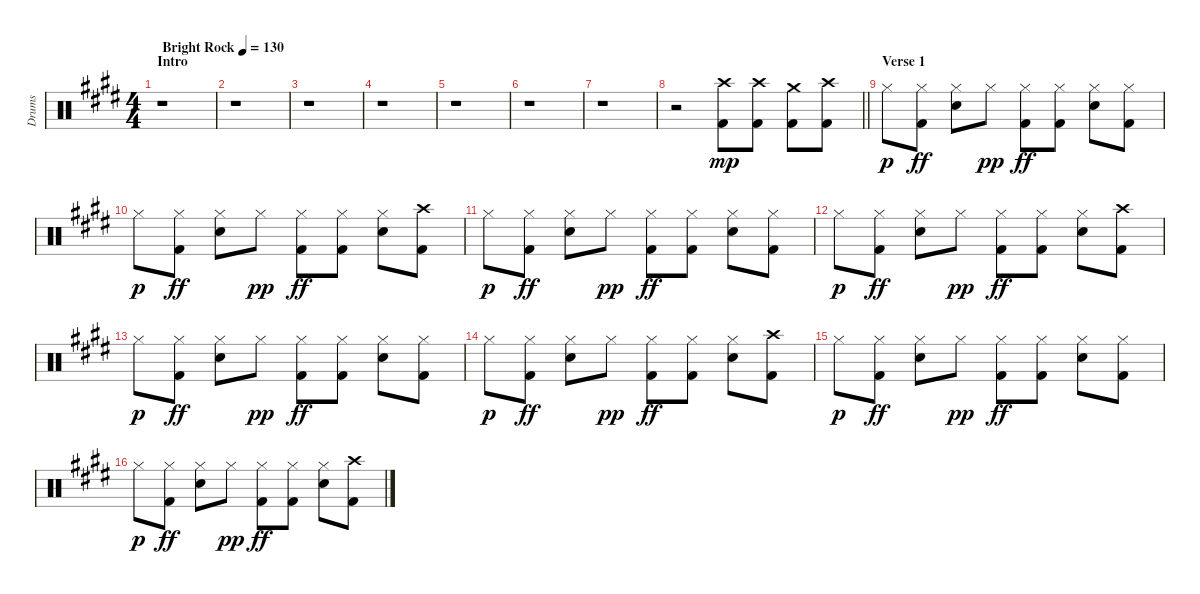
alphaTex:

\track ("Drums" "Drums") {instrument percussion}
\staff {score}
\articulation defaults
\ts (4 4)
\section ("" "Intro")
\tempo (130 "Bright Rock")
\clef neutral
\ks e
r.1{dy mp} |
\ks c#minor
r.1 |
r.1 |
r.1 |
\ks e
r.1 |
\ks c#minor
r.1 |
r.1 |
\barLineRight lightlight
r.2 ("Kick (hit) 2" "Crash high (hit)").8 ("Kick (hit) 2" "Crash high (hit)").8 ("Kick (hit) 2" "Crash medium (hit)").8 ("Kick (hit) 2" "Crash high (hit)").8 |
\section ("" "Verse 1")
\ks e "Hi-Hat (closed)".8{dy p}
("Hi-Hat (closed)" "Kick (hit) 2").8{dy ff} ("Hi-Hat (closed)" "Electric Snare (hit)").8 "Hi-Hat (closed)".8{dy pp} ("Hi-Hat (closed)" "Kick (hit) 2").8{dy ff} ("Hi-Hat (closed)" "Kick (hit) 2").8 ("Hi-Hat (closed)" "Electric Snare (hit)").8 ("Hi-Hat (closed)" "Kick (hit) 2").8 |
\ks c#minor "Hi-Hat (closed)".8{dy p}
("Hi-Hat (closed)" "Kick (hit) 2").8{dy ff} ("Hi-Hat (closed)" "Electric Snare (hit)").8 "Hi-Hat (closed)".8{dy pp} ("Hi-Hat (closed)" "Kick (hit) 2").8{dy ff} ("Hi-Hat (closed)" "Kick (hit) 2").8 ("Hi-Hat (closed)" "Electric Snare (hit)").8 ("Crash high (hit)" "Kick (hit) 2").8 |
\ks e "Hi-Hat (closed)".8{dy p}
("Hi-Hat (closed)" "Kick (hit) 2").8{dy ff} ("Hi-Hat (closed)" "Electric Snare (hit)").8 "Hi-Hat (closed)".8{dy pp} ("Hi-Hat (closed)" "Kick (hit) 2").8{dy ff} ("Hi-Hat (closed)" "Kick (hit) 2").8 ("Hi-Hat (closed)" "Electric Snare (hit)").8 ("Hi-Hat (closed)" "Kick (hit) 2").8 |
\ks c#minor "Hi-Hat (closed)".8{dy p}
("Hi-Hat (closed)" "Kick (hit) 2").8{dy ff} ("Hi-Hat (closed)" "Electric Snare (hit)").8 "Hi-Hat (closed)".8{dy pp} ("Hi-Hat (closed)" "Kick (hit) 2").8{dy ff} ("Hi-Hat (closed)" "Kick (hit) 2").8 ("Hi-Hat (closed)" "Electric Snare (hit)").8 ("Crash high (hit)" "Kick (hit) 2").8 |
\ks e "Hi-Hat (closed)".8{dy p}
("Hi-Hat (closed)" "Kick (hit) 2").8{dy ff} ("Hi-Hat (closed)" "Electric Snare (hit)").8 "Hi-Hat (closed)".8{dy pp} ("Hi-Hat (closed)" "Kick (hit) 2").8{dy ff} ("Hi-Hat (closed)" "Kick (hit) 2").8 ("Hi-Hat (closed)" "Electric Snare (hit)").8 ("Hi-Hat (closed)" "Kick (hit) 2").8 |
\ks c#minor "Hi-Hat (closed)".8{dy p}
("Hi-Hat (closed)" "Kick (hit) 2").8{dy ff} ("Hi-Hat (closed)" "Electric Snare (hit)").8 "Hi-Hat (closed)".8{dy pp} ("Hi-Hat (closed)" "Kick (hit) 2").8{dy ff} ("Hi-Hat (closed)" "Kick (hit) 2").8 ("Hi-Hat (closed)" "Electric Snare (hit)").8 ("Crash high (hit)" "Kick (hit) 2").8 |
\ks e "Hi-Hat (closed)".8{dy p}
("Hi-Hat (closed)" "Kick (hit) 2").8{dy ff} ("Hi-Hat (closed)" "Electric Snare (hit)").8 "Hi-Hat (closed)".8{dy pp} ("Hi-Hat (closed)" "Kick (hit) 2").8{dy ff} ("Hi-Hat (closed)" "Kick (hit) 2").8 ("Hi-Hat (closed)" "Electric Snare (hit)").8 ("Hi-Hat (closed)" "Kick (hit) 2").8 |
\ks c#minor "Hi-Hat (closed)".8{dy p}
("Hi-Hat (closed)" "Kick (hit) 2").8{dy ff} ("Hi-Hat (closed)" "Electric Snare (hit)").8 "Hi-Hat (closed)".8{dy pp} ("Hi-Hat (closed)" "Kick (hit) 2").8{dy ff} ("Hi-Hat (closed)" "Kick (hit) 2").8 ("Hi-Hat (closed)" "Electric Snare (hit)").8 ("Crash high (hit)" "Kick (hit) 2").8
